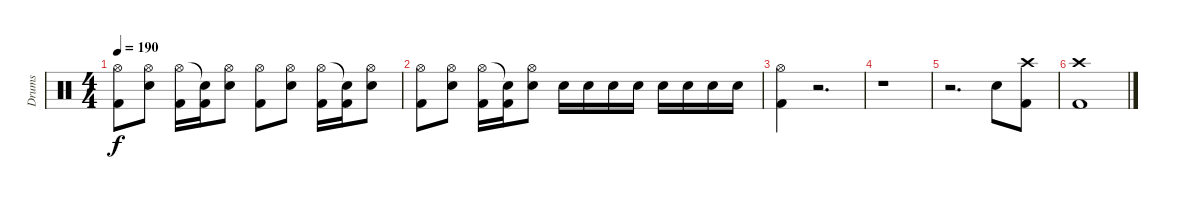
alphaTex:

\track ("Drums" "Drums") {instrument percussion}
\staff {score}
\articulation defaults
\ts (4 4)
\tempo 190
\clef neutral
\ks c
("Hi-Hat (open)" "Kick (hit) 2").8{dy f} ("Hi-Hat (open)" "Snare (hit) 2").8 ("Hi-Hat (open)" "Kick (hit) 2").16 ("Snare (hit)"{t} "Kick (hit) 2").16 ("Hi-Hat (open)" "Snare (hit) 2").8 ("Hi-Hat (open)" "Kick (hit) 2").8 ("Hi-Hat (open)" "Snare (hit) 2").8 ("Hi-Hat (open)" "Kick (hit) 2").16 ("Snare (hit)"{t} "Kick (hit) 2").16 ("Hi-Hat (open)" "Snare (hit) 2").8 |
("Hi-Hat (open)" "Kick (hit) 2").8 ("Hi-Hat (open)" "Snare (hit) 2").8 ("Hi-Hat (open)" "Kick (hit) 2").16 ("Snare (hit)"{t} "Kick (hit) 2").16 ("Hi-Hat (open)" "Snare (hit) 2").8 "Snare (hit) 2".16 "Snare (hit) 2".16 "Snare (hit) 2".16 "Snare (hit) 2".16 "Snare (hit) 2".16 "Snare (hit) 2".16 "Snare (hit) 2".16 "Snare (hit) 2".16 |
("Hi-Hat (open)" "Kick (hit) 2").4 r.2{d} |
r.1 |
r.2{d} "Snare (hit) 2".8 ("Crash high (hit)" "Kick (hit) 2").8 |
("Crash high (hit)" "Kick (hit) 2").1
